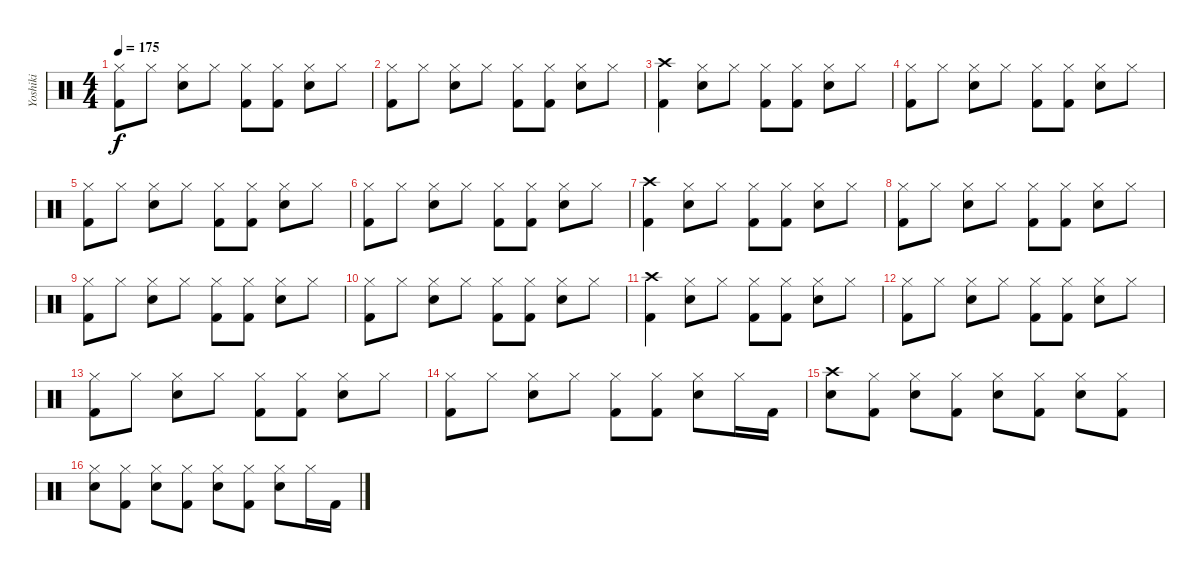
\track ("Yoshiki" "Yoshiki") {instrument percussion}
\staff {score}
\articulation defaults
\ts (4 4)
\tempo 175
\clef neutral
\ks c
("Hi-Hat (closed)" "Kick (hit) 2").8{dy f} "Hi-Hat (closed)".8 ("Hi-Hat (closed)" "Electric Snare (hit)").8 "Hi-Hat (closed)".8 ("Hi-Hat (closed)" "Kick (hit) 2").8 ("Hi-Hat (closed)" "Kick (hit) 2").8 ("Hi-Hat (closed)" "Electric Snare (hit)").8 "Hi-Hat (closed)".8 |
("Hi-Hat (closed)" "Kick (hit) 2").8 "Hi-Hat (closed)".8 ("Hi-Hat (closed)" "Electric Snare (hit)").8 "Hi-Hat (closed)".8 ("Hi-Hat (closed)" "Kick (hit) 2").8 ("Hi-Hat (closed)" "Kick (hit) 2").8 ("Hi-Hat (closed)" "Electric Snare (hit)").8 "Hi-Hat (closed)".8 |
("Crash high (hit)" "Kick (hit) 2").4 ("Hi-Hat (closed)" "Electric Snare (hit)").8 "Hi-Hat (closed)".8 ("Hi-Hat (closed)" "Kick (hit) 2").8 ("Hi-Hat (closed)" "Kick (hit) 2").8 ("Hi-Hat (closed)" "Electric Snare (hit)").8 "Hi-Hat (closed)".8 |
("Hi-Hat (closed)" "Kick (hit) 2").8 "Hi-Hat (closed)".8 ("Hi-Hat (closed)" "Electric Snare (hit)").8 "Hi-Hat (closed)".8 ("Hi-Hat (closed)" "Kick (hit) 2").8 ("Hi-Hat (closed)" "Kick (hit) 2").8 ("Hi-Hat (closed)" "Electric Snare (hit)").8 "Hi-Hat (closed)".8 |
("Hi-Hat (closed)" "Kick (hit) 2").8 "Hi-Hat (closed)".8 ("Hi-Hat (closed)" "Electric Snare (hit)").8 "Hi-Hat (closed)".8 ("Hi-Hat (closed)" "Kick (hit) 2").8 ("Hi-Hat (closed)" "Kick (hit) 2").8 ("Hi-Hat (closed)" "Electric Snare (hit)").8 "Hi-Hat (closed)".8 |
("Hi-Hat (closed)" "Kick (hit) 2").8 "Hi-Hat (closed)".8 ("Hi-Hat (closed)" "Electric Snare (hit)").8 "Hi-Hat (closed)".8 ("Hi-Hat (closed)" "Kick (hit) 2").8 ("Hi-Hat (closed)" "Kick (hit) 2").8 ("Hi-Hat (closed)" "Electric Snare (hit)").8 "Hi-Hat (closed)".8 |
("Crash high (hit)" "Kick (hit) 2").4 ("Hi-Hat (closed)" "Electric Snare (hit)").8 "Hi-Hat (closed)".8 ("Hi-Hat (closed)" "Kick (hit) 2").8 ("Hi-Hat (closed)" "Kick (hit) 2").8 ("Hi-Hat (closed)" "Electric Snare (hit)").8 "Hi-Hat (closed)".8 |
("Hi-Hat (closed)" "Kick (hit) 2").8 "Hi-Hat (closed)".8 ("Hi-Hat (closed)" "Electric Snare (hit)").8 "Hi-Hat (closed)".8 ("Hi-Hat (closed)" "Kick (hit) 2").8 ("Hi-Hat (closed)" "Kick (hit) 2").8 ("Hi-Hat (closed)" "Electric Snare (hit)").8 "Hi-Hat (closed)".8 |
("Hi-Hat (closed)" "Kick (hit) 2").8 "Hi-Hat (closed)".8 ("Hi-Hat (closed)" "Electric Snare (hit)").8 "Hi-Hat (closed)".8 ("Hi-Hat (closed)" "Kick (hit) 2").8 ("Hi-Hat (closed)" "Kick (hit) 2").8 ("Hi-Hat (closed)" "Electric Snare (hit)").8 "Hi-Hat (closed)".8 |
("Hi-Hat (closed)" "Kick (hit) 2").8 "Hi-Hat (closed)".8 ("Hi-Hat (closed)" "Electric Snare (hit)").8 "Hi-Hat (closed)".8 ("Hi-Hat (closed)" "Kick (hit) 2").8 ("Hi-Hat (closed)" "Kick (hit) 2").8 ("Hi-Hat (closed)" "Electric Snare (hit)").8 "Hi-Hat (closed)".8 |
("Crash high (hit)" "Kick (hit) 2").4 ("Hi-Hat (closed)" "Electric Snare (hit)").8 "Hi-Hat (closed)".8 ("Hi-Hat (closed)" "Kick (hit) 2").8 ("Hi-Hat (closed)" "Kick (hit) 2").8 ("Hi-Hat (closed)" "Electric Snare (hit)").8 "Hi-Hat (closed)".8 |
("Hi-Hat (closed)" "Kick (hit) 2").8 "Hi-Hat (closed)".8 ("Hi-Hat (closed)" "Electric Snare (hit)").8 "Hi-Hat (closed)".8 ("Hi-Hat (closed)" "Kick (hit) 2").8 ("Hi-Hat (closed)" "Kick (hit) 2").8 ("Hi-Hat (closed)" "Electric Snare (hit)").8 "Hi-Hat (closed)".8 |
("Hi-Hat (closed)" "Kick (hit) 2").8 "Hi-Hat (closed)".8 ("Hi-Hat (closed)" "Electric Snare (hit)").8 "Hi-Hat (closed)".8 ("Hi-Hat (closed)" "Kick (hit) 2").8 ("Hi-Hat (closed)" "Kick (hit) 2").8 ("Hi-Hat (closed)" "Electric Snare (hit)").8 "Hi-Hat (closed)".8 |
("Hi-Hat (closed)" "Kick (hit) 2").8 "Hi-Hat (closed)".8 ("Hi-Hat (closed)" "Electric Snare (hit)").8 "Hi-Hat (closed)".8 ("Hi-Hat (closed)" "Kick (hit) 2").8 ("Hi-Hat (closed)" "Kick (hit) 2").8 ("Hi-Hat (closed)" "Electric Snare (hit)").8 "Hi-Hat (closed)".16 "Kick (hit) 2".16 |
("Crash high (hit)" "Electric Snare (hit)").8 ("Hi-Hat (closed)" "Kick (hit) 2").8 ("Hi-Hat (closed)" "Electric Snare (hit)").8 ("Hi-Hat (closed)" "Kick (hit) 2").8 ("Hi-Hat (closed)" "Electric Snare (hit)").8 ("Hi-Hat (closed)" "Kick (hit) 2").8 ("Hi-Hat (closed)" "Electric Snare (hit)").8 ("Hi-Hat (closed)" "Kick (hit) 2").8 |
("Hi-Hat (closed)" "Electric Snare (hit)").8 ("Hi-Hat (closed)" "Kick (hit) 2").8 ("Hi-Hat (closed)" "Electric Snare (hit)").8 ("Hi-Hat (closed)" "Kick (hit) 2").8 ("Hi-Hat (closed)" "Electric Snare (hit)").8 ("Hi-Hat (closed)" "Kick (hit) 2").8 ("Hi-Hat (closed)" "Electric Snare (hit)").8 "Hi-Hat (closed)".16 "Kick (hit) 2".16
